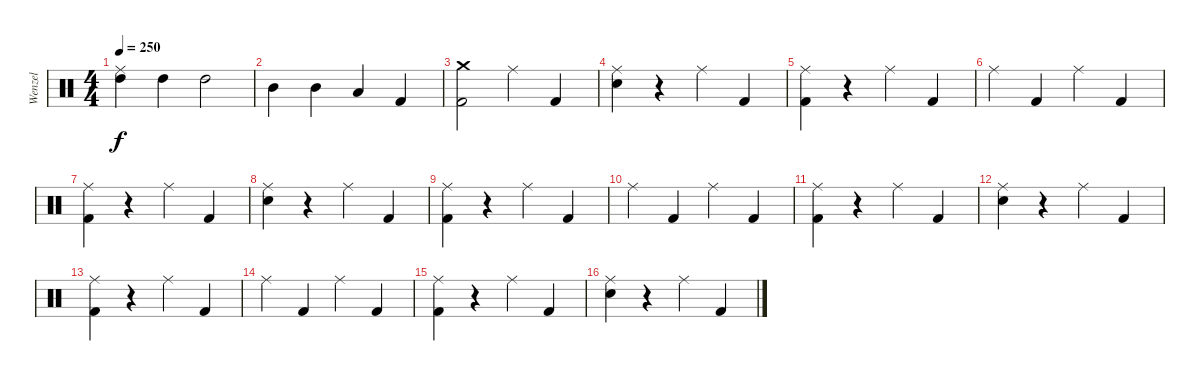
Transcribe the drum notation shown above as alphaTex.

\track ("Wenzel" "Wenzel") {instrument percussion}
\staff {score}
\articulation defaults
\ts (4 4)
\tempo 250
\clef neutral
\ks c
("High Tom (hit)" "Ride (middle)").4{dy f} "High Tom (hit)".4 "High Tom (hit)".2 |
"Mid Tom (hit)".4 "Mid Tom (hit)".4 "Low Tom (hit)".4 "Kick (hit) 2".4 |
("Crash medium (hit)" "Kick (hit) 2").2 "Ride (middle)".4 "Kick (hit) 2".4 |
("Ride (middle)" "Snare (hit) 2").4 r.4 "Ride (middle)".4 "Kick (hit) 2".4 |
("Ride (middle)" "Kick (hit) 2").4 r.4 "Ride (middle)".4 "Kick (hit) 2".4 |
"Ride (middle)".4 "Kick (hit) 2".4 "Ride (middle)".4 "Kick (hit) 2".4 |
("Ride (middle)" "Kick (hit) 2").4 r.4 "Ride (middle)".4 "Kick (hit) 2".4 |
("Ride (middle)" "Snare (hit) 2").4 r.4 "Ride (middle)".4 "Kick (hit) 2".4 |
("Ride (middle)" "Kick (hit) 2").4 r.4 "Ride (middle)".4 "Kick (hit) 2".4 |
"Ride (middle)".4 "Kick (hit) 2".4 "Ride (middle)".4 "Kick (hit) 2".4 |
("Ride (middle)" "Kick (hit) 2").4 r.4 "Ride (middle)".4 "Kick (hit) 2".4 |
("Ride (middle)" "Snare (hit) 2").4 r.4 "Ride (middle)".4 "Kick (hit) 2".4 |
("Ride (middle)" "Kick (hit) 2").4 r.4 "Ride (middle)".4 "Kick (hit) 2".4 |
"Ride (middle)".4 "Kick (hit) 2".4 "Ride (middle)".4 "Kick (hit) 2".4 |
("Ride (middle)" "Kick (hit) 2").4 r.4 "Ride (middle)".4 "Kick (hit) 2".4 |
("Ride (middle)" "Snare (hit) 2").4 r.4 "Ride (middle)".4 "Kick (hit) 2".4
